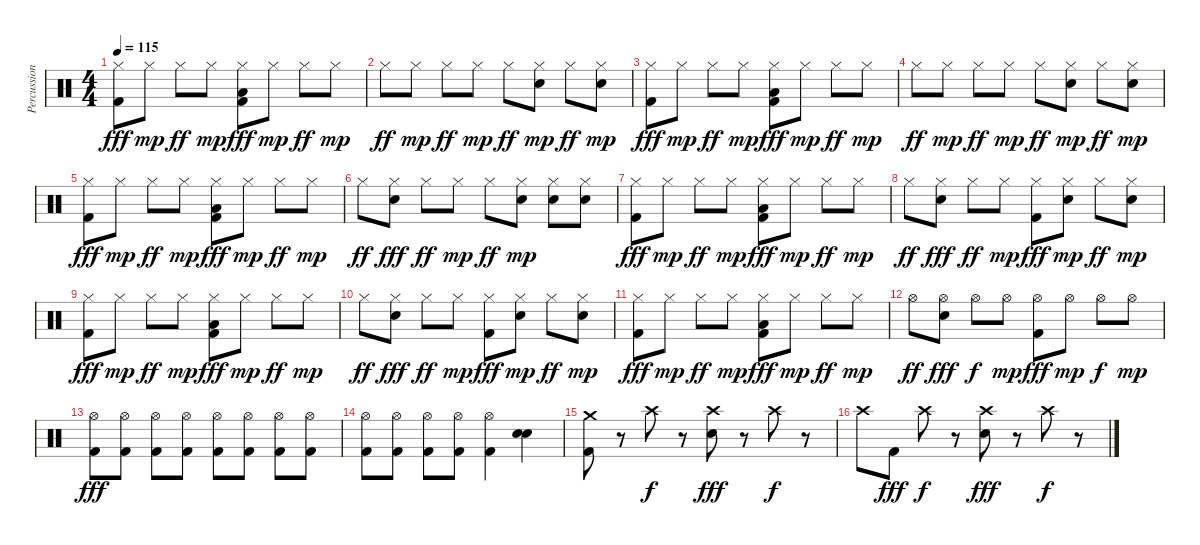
\track ("Percussion" "Percussion") {instrument percussion}
\staff {score}
\articulation defaults
\ts (4 4)
\tempo 115
\clef neutral
\ks c
("Hi-Hat (closed)" "Kick (hit) 2").8{dy fff} "Hi-Hat (closed)".8{dy mp} "Hi-Hat (closed)".8{dy ff} "Hi-Hat (closed)".8{dy mp} ("Hi-Hat (closed)" "Low Tom (hit)" "Kick (hit) 2").8{dy fff} "Hi-Hat (closed)".8{dy mp} "Hi-Hat (closed)".8{dy ff} "Hi-Hat (closed)".8{dy mp} |
"Hi-Hat (closed)".8{dy ff} "Hi-Hat (closed)".8{dy mp} "Hi-Hat (closed)".8{dy ff} "Hi-Hat (closed)".8{dy mp} "Hi-Hat (closed)".8{dy ff} ("Hi-Hat (closed)" "Snare (hit) 2").8{dy mp} "Hi-Hat (closed)".8{dy ff} ("Hi-Hat (closed)" "Snare (hit) 2").8{dy mp} |
("Hi-Hat (closed)" "Kick (hit) 2").8{dy fff} "Hi-Hat (closed)".8{dy mp} "Hi-Hat (closed)".8{dy ff} "Hi-Hat (closed)".8{dy mp} ("Hi-Hat (closed)" "Low Tom (hit)" "Kick (hit) 2").8{dy fff} "Hi-Hat (closed)".8{dy mp} "Hi-Hat (closed)".8{dy ff} "Hi-Hat (closed)".8{dy mp} |
"Hi-Hat (closed)".8{dy ff} "Hi-Hat (closed)".8{dy mp} "Hi-Hat (closed)".8{dy ff} "Hi-Hat (closed)".8{dy mp} "Hi-Hat (closed)".8{dy ff} ("Hi-Hat (closed)" "Snare (hit) 2").8{dy mp} "Hi-Hat (closed)".8{dy ff} ("Hi-Hat (closed)" "Snare (hit) 2").8{dy mp} |
("Hi-Hat (closed)" "Kick (hit) 2").8{dy fff} "Hi-Hat (closed)".8{dy mp} "Hi-Hat (closed)".8{dy ff} "Hi-Hat (closed)".8{dy mp} ("Hi-Hat (closed)" "Low Tom (hit)" "Kick (hit) 2").8{dy fff} "Hi-Hat (closed)".8{dy mp} "Hi-Hat (closed)".8{dy ff} "Hi-Hat (closed)".8{dy mp} |
"Hi-Hat (closed)".8{dy ff} ("Hi-Hat (closed)" "Snare (hit) 2").8{dy fff} "Hi-Hat (closed)".8{dy ff} "Hi-Hat (closed)".8{dy mp} "Hi-Hat (closed)".8{dy ff} ("Hi-Hat (closed)" "Snare (hit) 2").8{dy mp} ("Hi-Hat (closed)" "Snare (hit) 2").8 ("Hi-Hat (closed)" "Snare (hit) 2").8 |
("Hi-Hat (closed)" "Kick (hit) 2").8{dy fff} "Hi-Hat (closed)".8{dy mp} "Hi-Hat (closed)".8{dy ff} "Hi-Hat (closed)".8{dy mp} ("Hi-Hat (closed)" "Low Tom (hit)" "Kick (hit) 2").8{dy fff} "Hi-Hat (closed)".8{dy mp} "Hi-Hat (closed)".8{dy ff} "Hi-Hat (closed)".8{dy mp} |
"Hi-Hat (closed)".8{dy ff} ("Hi-Hat (closed)" "Snare (hit) 2").8{dy fff} "Hi-Hat (closed)".8{dy ff} "Hi-Hat (closed)".8{dy mp} ("Hi-Hat (closed)" "Kick (hit) 2").8{dy fff} ("Hi-Hat (closed)" "Snare (hit) 2").8{dy mp} "Hi-Hat (closed)".8{dy ff} ("Hi-Hat (closed)" "Snare (hit) 2").8{dy mp} |
("Hi-Hat (closed)" "Kick (hit) 2").8{dy fff} "Hi-Hat (closed)".8{dy mp} "Hi-Hat (closed)".8{dy ff} "Hi-Hat (closed)".8{dy mp} ("Hi-Hat (closed)" "Low Tom (hit)" "Kick (hit) 2").8{dy fff} "Hi-Hat (closed)".8{dy mp} "Hi-Hat (closed)".8{dy ff} "Hi-Hat (closed)".8{dy mp} |
"Hi-Hat (closed)".8{dy ff} ("Hi-Hat (closed)" "Snare (hit) 2").8{dy fff} "Hi-Hat (closed)".8{dy ff} "Hi-Hat (closed)".8{dy mp} ("Hi-Hat (closed)" "Kick (hit) 2").8{dy fff} ("Hi-Hat (closed)" "Snare (hit) 2").8{dy mp} "Hi-Hat (closed)".8{dy ff} ("Hi-Hat (closed)" "Snare (hit) 2").8{dy mp} |
("Hi-Hat (closed)" "Kick (hit) 2").8{dy fff} "Hi-Hat (closed)".8{dy mp} "Hi-Hat (closed)".8{dy ff} "Hi-Hat (closed)".8{dy mp} ("Hi-Hat (closed)" "Low Tom (hit)" "Kick (hit) 2").8{dy fff} "Hi-Hat (closed)".8{dy mp} "Hi-Hat (closed)".8{dy ff} "Hi-Hat (closed)".8{dy mp} |
"Hi-Hat (open)".8{dy ff} ("Hi-Hat (open)" "Snare (hit) 2").8{dy fff} "Hi-Hat (open)".8{dy f} "Hi-Hat (open)".8{dy mp} ("Hi-Hat (open)" "Kick (hit) 2").8{dy fff} "Hi-Hat (open)".8{dy mp} "Hi-Hat (open)".8{dy f} "Hi-Hat (open)".8{dy mp} |
("Hi-Hat (open)" "Kick (hit) 2").8{dy fff} ("Hi-Hat (open)" "Kick (hit) 2").8 ("Hi-Hat (open)" "Kick (hit) 2").8 ("Hi-Hat (open)" "Kick (hit) 2").8 ("Hi-Hat (open)" "Kick (hit) 2").8 ("Hi-Hat (open)" "Kick (hit) 2").8 ("Hi-Hat (open)" "Kick (hit) 2").8 ("Hi-Hat (open)" "Kick (hit) 2").8 |
("Hi-Hat (open)" "Kick (hit) 2").8 ("Hi-Hat (open)" "Kick (hit) 2").8 ("Hi-Hat (open)" "Kick (hit) 2").8 ("Hi-Hat (open)" "Kick (hit) 2").8 ("Hi-Hat (open)" "Kick (hit) 2").4 ("Snare (hit) 2" "Snare (hit) 2").4 |
("Crash medium (hit)" "Kick (hit) 2").8 r.8 "Crash high (hit)".8{dy f} r.8 ("Crash high (hit)" "Snare (hit) 2").8{dy fff} r.8 "Crash high (hit)".8{dy f} r.8 |
"Crash high (hit)".8 "Kick (hit) 2".8{dy fff} "Crash high (hit)".8{dy f} r.8 ("Crash high (hit)" "Snare (hit) 2").8{dy fff} r.8 "Crash high (hit)".8{dy f} r.8
